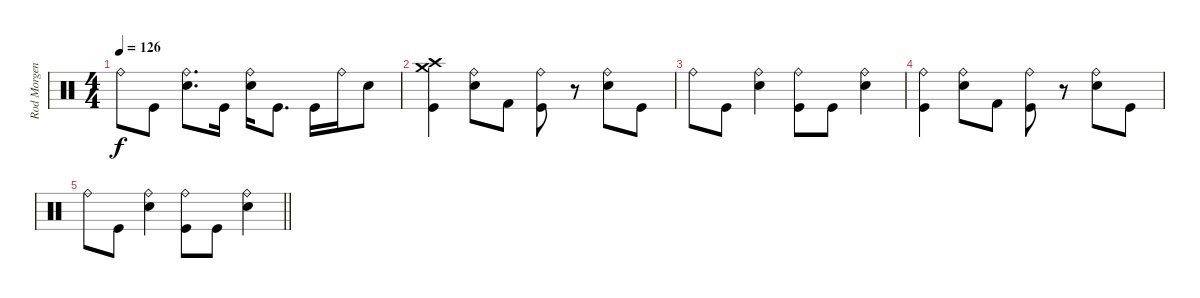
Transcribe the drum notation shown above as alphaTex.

\track ("Rod Morgenstein" "Rod Morgen") {instrument percussion}
\staff {score}
\articulation defaults
\ts (4 4)
\tempo 126
\clef neutral
\ks c "Ride (bell)".8{dy f} "Kick (hit)".8
("Snare (hit) 2" "Ride (bell)").8{d} "Kick (hit)".16 ("Snare (hit) 2" "Ride (bell)").16 "Kick (hit)".8{d} "Kick (hit)".16 "Ride (bell)".16 "Snare (hit) 2".8 |
("Crash high (hit)" "Crash medium (hit)" "Kick (hit)").4 ("Snare (hit) 2" "Ride (bell)").8 "Kick (hit) 2".8 ("Ride (bell)" "Kick (hit)").8 r.8 ("Ride (bell)" "Snare (hit) 2").8 "Kick (hit)".8 |
"Ride (bell)".8 "Kick (hit)".8 ("Snare (hit) 2" "Ride (bell)").4 ("Ride (bell)" "Kick (hit)").8 "Kick (hit)".8 ("Ride (bell)" "Snare (hit) 2").4 |
("Ride (bell)" "Kick (hit)").4 ("Snare (hit) 2" "Ride (bell)").8 "Kick (hit) 2".8 ("Ride (bell)" "Kick (hit)").8 r.8 ("Ride (bell)" "Snare (hit) 2").8 "Kick (hit)".8 |
\barLineRight lightlight "Ride (bell)".8 "Kick (hit)".8
("Snare (hit) 2" "Ride (bell)").4 ("Ride (bell)" "Kick (hit)").8 "Kick (hit)".8 ("Ride (bell)" "Snare (hit) 2").4
